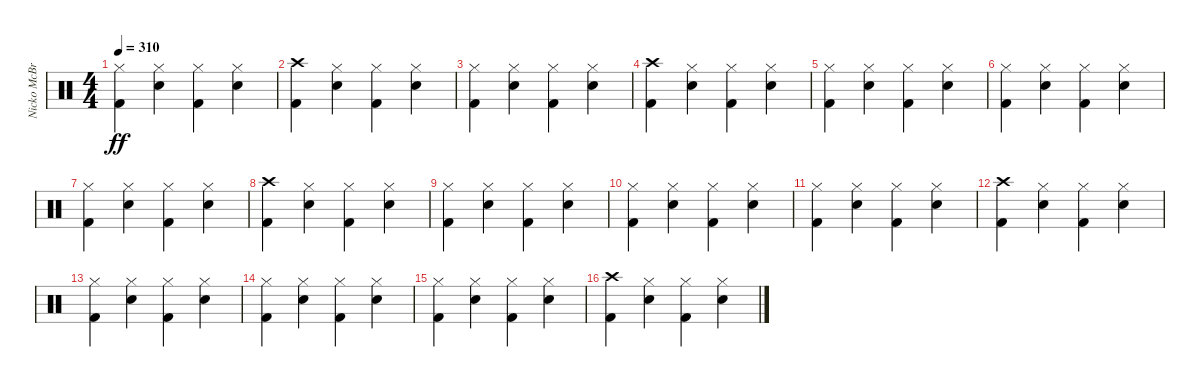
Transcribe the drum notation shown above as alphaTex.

\track ("Nicko McBrain" "Nicko McBr") {instrument percussion}
\staff {score}
\articulation defaults
\ts (4 4)
\tempo 310
\clef neutral
\ks c
("Kick (hit) 2" "Hi-Hat (closed)").4{dy ff} ("Snare (hit) 2" "Hi-Hat (closed)").4 ("Kick (hit) 2" "Hi-Hat (closed)").4 ("Snare (hit) 2" "Hi-Hat (closed)").4 |
("Kick (hit) 2" "Crash high (hit)").4 ("Snare (hit) 2" "Hi-Hat (closed)").4 ("Kick (hit) 2" "Hi-Hat (closed)").4 ("Snare (hit) 2" "Hi-Hat (closed)").4 |
("Kick (hit) 2" "Hi-Hat (closed)").4 ("Snare (hit) 2" "Hi-Hat (closed)").4 ("Kick (hit) 2" "Hi-Hat (closed)").4 ("Snare (hit) 2" "Hi-Hat (closed)").4 |
("Kick (hit) 2" "Crash high (hit)").4 ("Snare (hit) 2" "Hi-Hat (closed)").4 ("Kick (hit) 2" "Hi-Hat (closed)").4 ("Snare (hit) 2" "Hi-Hat (closed)").4 |
("Kick (hit) 2" "Hi-Hat (closed)").4 ("Snare (hit) 2" "Hi-Hat (closed)").4 ("Kick (hit) 2" "Hi-Hat (closed)").4 ("Snare (hit) 2" "Hi-Hat (closed)").4 |
("Kick (hit) 2" "Hi-Hat (closed)").4 ("Snare (hit) 2" "Hi-Hat (closed)").4 ("Kick (hit) 2" "Hi-Hat (closed)").4 ("Snare (hit) 2" "Hi-Hat (closed)").4 |
("Kick (hit) 2" "Hi-Hat (closed)").4 ("Snare (hit) 2" "Hi-Hat (closed)").4 ("Kick (hit) 2" "Hi-Hat (closed)").4 ("Snare (hit) 2" "Hi-Hat (closed)").4 |
("Kick (hit) 2" "Crash high (hit)").4 ("Snare (hit) 2" "Hi-Hat (closed)").4 ("Kick (hit) 2" "Hi-Hat (closed)").4 ("Snare (hit) 2" "Hi-Hat (closed)").4 |
("Kick (hit) 2" "Hi-Hat (closed)").4 ("Snare (hit) 2" "Hi-Hat (closed)").4 ("Kick (hit) 2" "Hi-Hat (closed)").4 ("Snare (hit) 2" "Hi-Hat (closed)").4 |
("Kick (hit) 2" "Hi-Hat (closed)").4 ("Snare (hit) 2" "Hi-Hat (closed)").4 ("Kick (hit) 2" "Hi-Hat (closed)").4 ("Snare (hit) 2" "Hi-Hat (closed)").4 |
("Kick (hit) 2" "Hi-Hat (closed)").4 ("Snare (hit) 2" "Hi-Hat (closed)").4 ("Kick (hit) 2" "Hi-Hat (closed)").4 ("Snare (hit) 2" "Hi-Hat (closed)").4 |
("Kick (hit) 2" "Crash high (hit)").4 ("Snare (hit) 2" "Hi-Hat (closed)").4 ("Kick (hit) 2" "Hi-Hat (closed)").4 ("Snare (hit) 2" "Hi-Hat (closed)").4 |
("Kick (hit) 2" "Hi-Hat (closed)").4 ("Snare (hit) 2" "Hi-Hat (closed)").4 ("Kick (hit) 2" "Hi-Hat (closed)").4 ("Snare (hit) 2" "Hi-Hat (closed)").4 |
("Kick (hit) 2" "Hi-Hat (closed)").4 ("Snare (hit) 2" "Hi-Hat (closed)").4 ("Kick (hit) 2" "Hi-Hat (closed)").4 ("Snare (hit) 2" "Hi-Hat (closed)").4 |
("Kick (hit) 2" "Hi-Hat (closed)").4 ("Snare (hit) 2" "Hi-Hat (closed)").4 ("Kick (hit) 2" "Hi-Hat (closed)").4 ("Snare (hit) 2" "Hi-Hat (closed)").4 |
("Kick (hit) 2" "Crash high (hit)").4 ("Snare (hit) 2" "Hi-Hat (closed)").4 ("Kick (hit) 2" "Hi-Hat (closed)").4 ("Snare (hit) 2" "Hi-Hat (closed)").4
